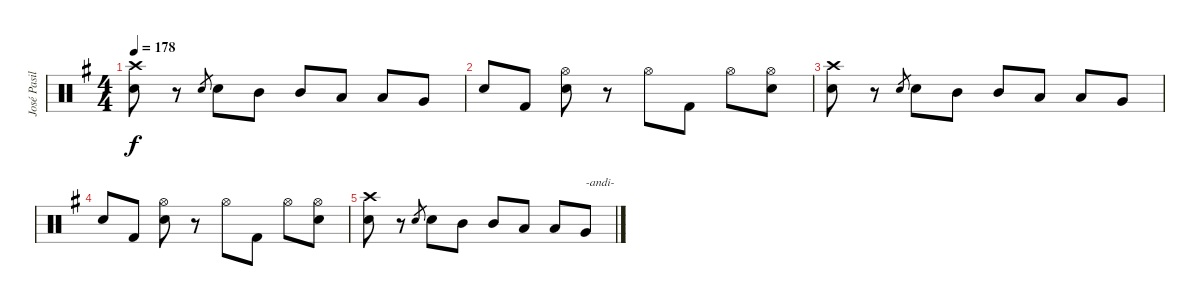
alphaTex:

\track ("José Pasillas [Drums]" "José Pasil") {instrument percussion}
\staff {score}
\articulation defaults
\ts (4 4)
\tempo 178
\clef neutral
\ks g
("Electric Snare (hit)" "Crash high (hit)").8{dy f} r.8 "Electric Snare (hit)".8{gr} "Electric Snare (hit)".8 "Mid Tom (hit)".8 "Mid Tom (hit)".8 "Low Tom (hit)".8 "Low Tom (hit)".8 "Very Low Tom (hit)".8 |
"Electric Snare (hit)".8 "Kick (hit) 2".8 ("Electric Snare (hit)" "Hi-Hat (open)").8 r.8 "Hi-Hat (open)".8 "Kick (hit) 2".8 "Hi-Hat (open)".8 ("Electric Snare (hit)" "Hi-Hat (open)").8 |
("Electric Snare (hit)" "Crash high (hit)").8 r.8 "Electric Snare (hit)".8{gr} "Electric Snare (hit)".8 "Mid Tom (hit)".8 "Mid Tom (hit)".8 "Low Tom (hit)".8 "Low Tom (hit)".8 "Very Low Tom (hit)".8 |
"Electric Snare (hit)".8 "Kick (hit) 2".8 ("Electric Snare (hit)" "Hi-Hat (open)").8 r.8 "Hi-Hat (open)".8 "Kick (hit) 2".8 "Hi-Hat (open)".8 ("Electric Snare (hit)" "Hi-Hat (open)").8 |
("Electric Snare (hit)" "Crash high (hit)").8 r.8 "Electric Snare (hit)".8{gr} "Electric Snare (hit)".8 "Mid Tom (hit)".8 "Mid Tom (hit)".8 "Low Tom (hit)".8 "Low Tom (hit)".8 "Very Low Tom (hit)".8{txt "-andi-"}
